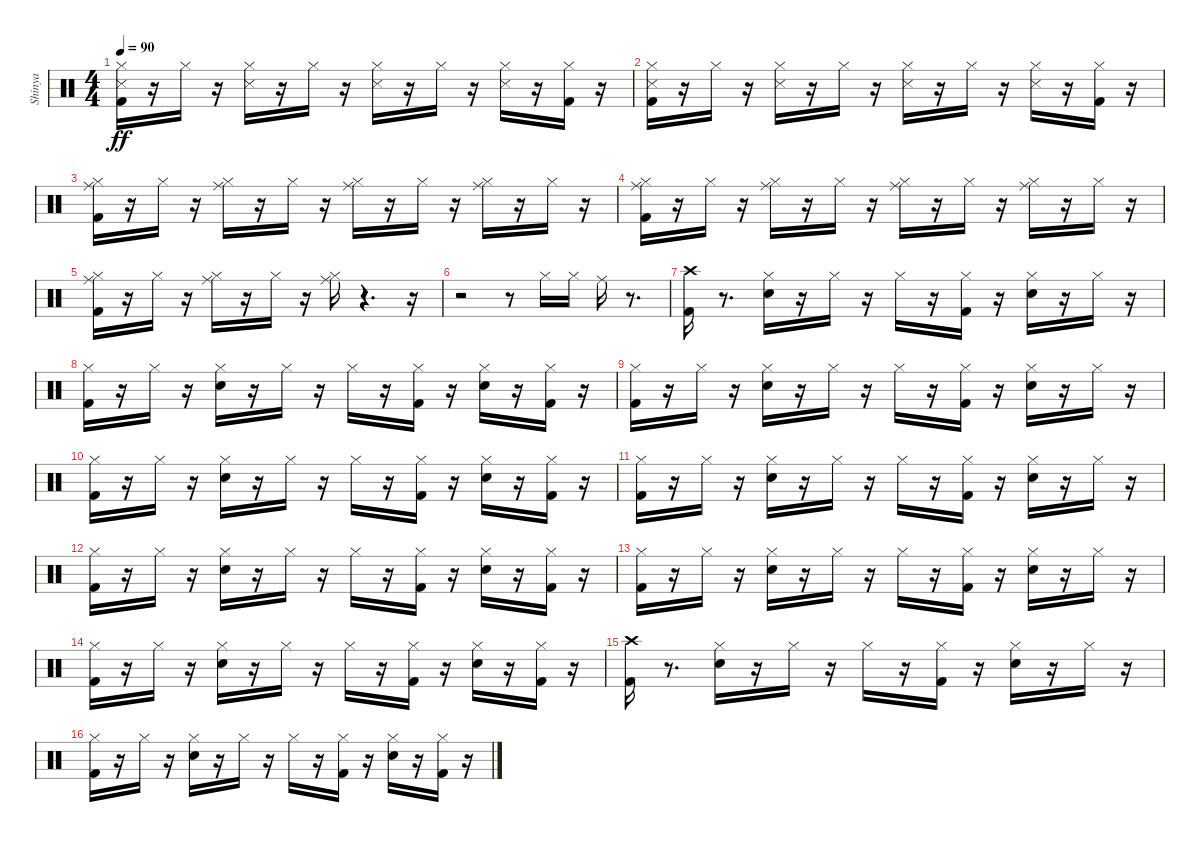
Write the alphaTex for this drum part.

\track ("Shinya" "Shinya") {instrument percussion}
\staff {score}
\articulation defaults
\ts (4 4)
\tempo 90
\clef neutral
\ks c
("Kick (hit) 2" "Snare (side stick) 3" "Hi-Hat (closed)").16{dy ff} r.16 "Hi-Hat (closed)".16 r.16 ("Snare (side stick) 3" "Hi-Hat (closed)").16 r.16 "Hi-Hat (closed)".16 r.16 ("Snare (side stick) 3" "Hi-Hat (closed)").16 r.16 "Hi-Hat (closed)".16 r.16 ("Snare (side stick) 3" "Hi-Hat (closed)").16 r.16 ("Hi-Hat (closed)" "Kick (hit) 2").16 r.16 |
("Kick (hit) 2" "Snare (side stick) 3" "Hi-Hat (closed)").16 r.16 "Hi-Hat (closed)".16 r.16 ("Snare (side stick) 3" "Hi-Hat (closed)").16 r.16 "Hi-Hat (closed)".16 r.16 ("Snare (side stick) 3" "Hi-Hat (closed)").16 r.16 "Hi-Hat (closed)".16 r.16 ("Snare (side stick) 3" "Hi-Hat (closed)").16 r.16 ("Hi-Hat (closed)" "Kick (hit) 2").16 r.16 |
("Kick (hit) 2" "Ride (middle)" "Hi-Hat (closed)").16 r.16 "Hi-Hat (closed)".16 r.16 ("Ride (middle)" "Hi-Hat (closed)").16 r.16 "Hi-Hat (closed)".16 r.16 ("Ride (middle)" "Hi-Hat (closed)").16 r.16 "Hi-Hat (closed)".16 r.16 ("Ride (middle)" "Hi-Hat (closed)").16 r.16 "Hi-Hat (closed)".16 r.16 |
("Kick (hit) 2" "Ride (middle)" "Hi-Hat (closed)").16 r.16 "Hi-Hat (closed)".16 r.16 ("Ride (middle)" "Hi-Hat (closed)").16 r.16 "Hi-Hat (closed)".16 r.16 ("Ride (middle)" "Hi-Hat (closed)").16 r.16 "Hi-Hat (closed)".16 r.16 ("Ride (middle)" "Hi-Hat (closed)").16 r.16 "Hi-Hat (closed)".16 r.16 |
("Kick (hit) 2" "Ride (middle)" "Hi-Hat (closed)").16 r.16 "Hi-Hat (closed)".16 r.16 ("Ride (middle)" "Hi-Hat (closed)").16 r.16 "Hi-Hat (closed)".16 r.16 ("Ride (middle)" "Hi-Hat (closed)").16 r.4{d} r.16 |
r.2 r.8 "Hi-Hat (closed)".16 "Hi-Hat (closed)".16 "Ride (middle)".16 r.8{d} |
("Crash high (hit)" "Kick (hit) 2").16 r.8{d} ("Snare (hit) 2" "Hi-Hat (closed)").16 r.16 "Hi-Hat (closed)".16 r.16 "Hi-Hat (closed)".16 r.16 ("Hi-Hat (closed)" "Kick (hit) 2").16 r.16 ("Snare (hit) 2" "Hi-Hat (closed)").16 r.16 "Hi-Hat (closed)".16 r.16 |
("Hi-Hat (closed)" "Kick (hit) 2").16 r.16 "Hi-Hat (closed)".16 r.16 ("Snare (hit) 2" "Hi-Hat (closed)").16 r.16 "Hi-Hat (closed)".16 r.16 "Hi-Hat (closed)".16 r.16 ("Hi-Hat (closed)" "Kick (hit) 2").16 r.16 ("Snare (hit) 2" "Hi-Hat (closed)").16 r.16 ("Hi-Hat (closed)" "Kick (hit) 2").16 r.16 |
("Hi-Hat (closed)" "Kick (hit) 2").16 r.16 "Hi-Hat (closed)".16 r.16 ("Snare (hit) 2" "Hi-Hat (closed)").16 r.16 "Hi-Hat (closed)".16 r.16 "Hi-Hat (closed)".16 r.16 ("Hi-Hat (closed)" "Kick (hit) 2").16 r.16 ("Snare (hit) 2" "Hi-Hat (closed)").16 r.16 "Hi-Hat (closed)".16 r.16 |
("Hi-Hat (closed)" "Kick (hit) 2").16 r.16 "Hi-Hat (closed)".16 r.16 ("Snare (hit) 2" "Hi-Hat (closed)").16 r.16 "Hi-Hat (closed)".16 r.16 "Hi-Hat (closed)".16 r.16 ("Hi-Hat (closed)" "Kick (hit) 2").16 r.16 ("Snare (hit) 2" "Hi-Hat (closed)").16 r.16 ("Hi-Hat (closed)" "Kick (hit) 2").16 r.16 |
("Hi-Hat (closed)" "Kick (hit) 2").16 r.16 "Hi-Hat (closed)".16 r.16 ("Snare (hit) 2" "Hi-Hat (closed)").16 r.16 "Hi-Hat (closed)".16 r.16 "Hi-Hat (closed)".16 r.16 ("Hi-Hat (closed)" "Kick (hit) 2").16 r.16 ("Snare (hit) 2" "Hi-Hat (closed)").16 r.16 "Hi-Hat (closed)".16 r.16 |
("Hi-Hat (closed)" "Kick (hit) 2").16 r.16 "Hi-Hat (closed)".16 r.16 ("Snare (hit) 2" "Hi-Hat (closed)").16 r.16 "Hi-Hat (closed)".16 r.16 "Hi-Hat (closed)".16 r.16 ("Hi-Hat (closed)" "Kick (hit) 2").16 r.16 ("Snare (hit) 2" "Hi-Hat (closed)").16 r.16 ("Hi-Hat (closed)" "Kick (hit) 2").16 r.16 |
("Hi-Hat (closed)" "Kick (hit) 2").16 r.16 "Hi-Hat (closed)".16 r.16 ("Snare (hit) 2" "Hi-Hat (closed)").16 r.16 "Hi-Hat (closed)".16 r.16 "Hi-Hat (closed)".16 r.16 ("Hi-Hat (closed)" "Kick (hit) 2").16 r.16 ("Snare (hit) 2" "Hi-Hat (closed)").16 r.16 "Hi-Hat (closed)".16 r.16 |
("Hi-Hat (closed)" "Kick (hit) 2").16 r.16 "Hi-Hat (closed)".16 r.16 ("Snare (hit) 2" "Hi-Hat (closed)").16 r.16 "Hi-Hat (closed)".16 r.16 "Hi-Hat (closed)".16 r.16 ("Hi-Hat (closed)" "Kick (hit) 2").16 r.16 ("Snare (hit) 2" "Hi-Hat (closed)").16 r.16 ("Hi-Hat (closed)" "Kick (hit) 2").16 r.16 |
("Crash high (hit)" "Kick (hit) 2").16 r.8{d} ("Snare (hit) 2" "Hi-Hat (closed)").16 r.16 "Hi-Hat (closed)".16 r.16 "Hi-Hat (closed)".16 r.16 ("Hi-Hat (closed)" "Kick (hit) 2").16 r.16 ("Snare (hit) 2" "Hi-Hat (closed)").16 r.16 "Hi-Hat (closed)".16 r.16 |
("Hi-Hat (closed)" "Kick (hit) 2").16 r.16 "Hi-Hat (closed)".16 r.16 ("Snare (hit) 2" "Hi-Hat (closed)").16 r.16 "Hi-Hat (closed)".16 r.16 "Hi-Hat (closed)".16 r.16 ("Hi-Hat (closed)" "Kick (hit) 2").16 r.16 ("Snare (hit) 2" "Hi-Hat (closed)").16 r.16 ("Hi-Hat (closed)" "Kick (hit) 2").16 r.16
